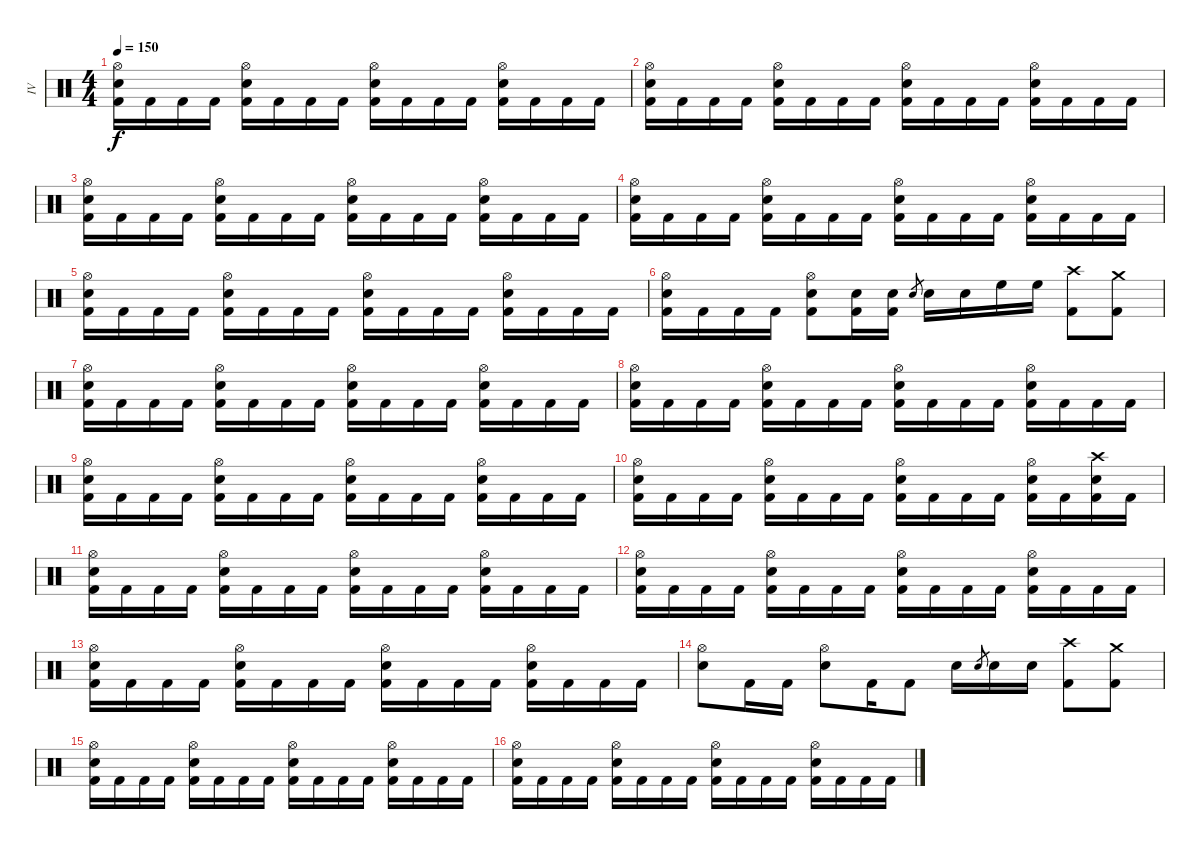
\track ("IV" "IV") {instrument percussion}
\staff {score}
\articulation defaults
\ts (4 4)
\tempo 150
\clef neutral
\ks c
("Hi-Hat (open)" "Snare (hit) 2" "Kick (hit) 2").16{dy f} "Kick (hit) 2".16 "Kick (hit) 2".16 "Kick (hit) 2".16 ("Hi-Hat (open)" "Snare (hit) 2" "Kick (hit) 2").16 "Kick (hit) 2".16 "Kick (hit) 2".16 "Kick (hit) 2".16 ("Hi-Hat (open)" "Snare (hit) 2" "Kick (hit) 2").16 "Kick (hit) 2".16 "Kick (hit) 2".16 "Kick (hit) 2".16 ("Hi-Hat (open)" "Snare (hit) 2" "Kick (hit) 2").16 "Kick (hit) 2".16 "Kick (hit) 2".16 "Kick (hit) 2".16 |
("Hi-Hat (open)" "Snare (hit) 2" "Kick (hit) 2").16 "Kick (hit) 2".16 "Kick (hit) 2".16 "Kick (hit) 2".16 ("Hi-Hat (open)" "Snare (hit) 2" "Kick (hit) 2").16 "Kick (hit) 2".16 "Kick (hit) 2".16 "Kick (hit) 2".16 ("Hi-Hat (open)" "Snare (hit) 2" "Kick (hit) 2").16 "Kick (hit) 2".16 "Kick (hit) 2".16 "Kick (hit) 2".16 ("Hi-Hat (open)" "Snare (hit) 2" "Kick (hit) 2").16 "Kick (hit) 2".16 "Kick (hit) 2".16 "Kick (hit) 2".16 |
("Hi-Hat (open)" "Snare (hit) 2" "Kick (hit) 2").16 "Kick (hit) 2".16 "Kick (hit) 2".16 "Kick (hit) 2".16 ("Hi-Hat (open)" "Snare (hit) 2" "Kick (hit) 2").16 "Kick (hit) 2".16 "Kick (hit) 2".16 "Kick (hit) 2".16 ("Hi-Hat (open)" "Snare (hit) 2" "Kick (hit) 2").16 "Kick (hit) 2".16 "Kick (hit) 2".16 "Kick (hit) 2".16 ("Hi-Hat (open)" "Snare (hit) 2" "Kick (hit) 2").16 "Kick (hit) 2".16 "Kick (hit) 2".16 "Kick (hit) 2".16 |
("Hi-Hat (open)" "Snare (hit) 2" "Kick (hit) 2").16 "Kick (hit) 2".16 "Kick (hit) 2".16 "Kick (hit) 2".16 ("Hi-Hat (open)" "Snare (hit) 2" "Kick (hit) 2").16 "Kick (hit) 2".16 "Kick (hit) 2".16 "Kick (hit) 2".16 ("Hi-Hat (open)" "Snare (hit) 2" "Kick (hit) 2").16 "Kick (hit) 2".16 "Kick (hit) 2".16 "Kick (hit) 2".16 ("Hi-Hat (open)" "Snare (hit) 2" "Kick (hit) 2").16 "Kick (hit) 2".16 "Kick (hit) 2".16 "Kick (hit) 2".16 |
("Hi-Hat (open)" "Snare (hit) 2" "Kick (hit) 2").16 "Kick (hit) 2".16 "Kick (hit) 2".16 "Kick (hit) 2".16 ("Hi-Hat (open)" "Snare (hit) 2" "Kick (hit) 2").16 "Kick (hit) 2".16 "Kick (hit) 2".16 "Kick (hit) 2".16 ("Hi-Hat (open)" "Snare (hit) 2" "Kick (hit) 2").16 "Kick (hit) 2".16 "Kick (hit) 2".16 "Kick (hit) 2".16 ("Hi-Hat (open)" "Snare (hit) 2" "Kick (hit) 2").16 "Kick (hit) 2".16 "Kick (hit) 2".16 "Kick (hit) 2".16 |
("Hi-Hat (open)" "Snare (hit) 2" "Kick (hit) 2").16 "Kick (hit) 2".16 "Kick (hit) 2".16 "Kick (hit) 2".16 ("Hi-Hat (open)" "Snare (hit) 2" "Kick (hit) 2").8 ("Snare (hit) 2" "Kick (hit) 2").16 ("Snare (hit) 2" "Kick (hit) 2").16 "Snare (hit) 2".8{gr} "Snare (hit) 2".16 "Snare (hit) 2".16 "High Floor Tom (hit)".16 "High Floor Tom (hit)".16 ("Crash high (hit)" "Kick (hit) 2").8 ("Crash medium (hit)" "Kick (hit) 2").8 |
("Hi-Hat (open)" "Snare (hit) 2" "Kick (hit) 2").16 "Kick (hit) 2".16 "Kick (hit) 2".16 "Kick (hit) 2".16 ("Hi-Hat (open)" "Snare (hit) 2" "Kick (hit) 2").16 "Kick (hit) 2".16 "Kick (hit) 2".16 "Kick (hit) 2".16 ("Hi-Hat (open)" "Snare (hit) 2" "Kick (hit) 2").16 "Kick (hit) 2".16 "Kick (hit) 2".16 "Kick (hit) 2".16 ("Hi-Hat (open)" "Snare (hit) 2" "Kick (hit) 2").16 "Kick (hit) 2".16 "Kick (hit) 2".16 "Kick (hit) 2".16 |
("Hi-Hat (open)" "Snare (hit) 2" "Kick (hit) 2").16 "Kick (hit) 2".16 "Kick (hit) 2".16 "Kick (hit) 2".16 ("Hi-Hat (open)" "Snare (hit) 2" "Kick (hit) 2").16 "Kick (hit) 2".16 "Kick (hit) 2".16 "Kick (hit) 2".16 ("Hi-Hat (open)" "Snare (hit) 2" "Kick (hit) 2").16 "Kick (hit) 2".16 "Kick (hit) 2".16 "Kick (hit) 2".16 ("Hi-Hat (open)" "Snare (hit) 2" "Kick (hit) 2").16 "Kick (hit) 2".16 "Kick (hit) 2".16 "Kick (hit) 2".16 |
("Hi-Hat (open)" "Snare (hit) 2" "Kick (hit) 2").16 "Kick (hit) 2".16 "Kick (hit) 2".16 "Kick (hit) 2".16 ("Hi-Hat (open)" "Snare (hit) 2" "Kick (hit) 2").16 "Kick (hit) 2".16 "Kick (hit) 2".16 "Kick (hit) 2".16 ("Hi-Hat (open)" "Snare (hit) 2" "Kick (hit) 2").16 "Kick (hit) 2".16 "Kick (hit) 2".16 "Kick (hit) 2".16 ("Hi-Hat (open)" "Snare (hit) 2" "Kick (hit) 2").16 "Kick (hit) 2".16 "Kick (hit) 2".16 "Kick (hit) 2".16 |
("Hi-Hat (open)" "Snare (hit) 2" "Kick (hit) 2").16 "Kick (hit) 2".16 "Kick (hit) 2".16 "Kick (hit) 2".16 ("Hi-Hat (open)" "Snare (hit) 2" "Kick (hit) 2").16 "Kick (hit) 2".16 "Kick (hit) 2".16 "Kick (hit) 2".16 ("Hi-Hat (open)" "Snare (hit) 2" "Kick (hit) 2").16 "Kick (hit) 2".16 "Kick (hit) 2".16 "Kick (hit) 2".16 ("Hi-Hat (open)" "Snare (hit) 2" "Kick (hit) 2").16 "Kick (hit) 2".16 ("Crash high (hit)" "Snare (hit) 2" "Kick (hit) 2").16 "Kick (hit) 2".16 |
("Hi-Hat (open)" "Snare (hit) 2" "Kick (hit) 2").16 "Kick (hit) 2".16 "Kick (hit) 2".16 "Kick (hit) 2".16 ("Hi-Hat (open)" "Snare (hit) 2" "Kick (hit) 2").16 "Kick (hit) 2".16 "Kick (hit) 2".16 "Kick (hit) 2".16 ("Hi-Hat (open)" "Snare (hit) 2" "Kick (hit) 2").16 "Kick (hit) 2".16 "Kick (hit) 2".16 "Kick (hit) 2".16 ("Hi-Hat (open)" "Snare (hit) 2" "Kick (hit) 2").16 "Kick (hit) 2".16 "Kick (hit) 2".16 "Kick (hit) 2".16 |
("Hi-Hat (open)" "Snare (hit) 2" "Kick (hit) 2").16 "Kick (hit) 2".16 "Kick (hit) 2".16 "Kick (hit) 2".16 ("Hi-Hat (open)" "Snare (hit) 2" "Kick (hit) 2").16 "Kick (hit) 2".16 "Kick (hit) 2".16 "Kick (hit) 2".16 ("Hi-Hat (open)" "Snare (hit) 2" "Kick (hit) 2").16 "Kick (hit) 2".16 "Kick (hit) 2".16 "Kick (hit) 2".16 ("Hi-Hat (open)" "Snare (hit) 2" "Kick (hit) 2").16 "Kick (hit) 2".16 "Kick (hit) 2".16 "Kick (hit) 2".16 |
("Hi-Hat (open)" "Snare (hit) 2" "Kick (hit) 2").16 "Kick (hit) 2".16 "Kick (hit) 2".16 "Kick (hit) 2".16 ("Hi-Hat (open)" "Snare (hit) 2" "Kick (hit) 2").16 "Kick (hit) 2".16 "Kick (hit) 2".16 "Kick (hit) 2".16 ("Hi-Hat (open)" "Snare (hit) 2" "Kick (hit) 2").16 "Kick (hit) 2".16 "Kick (hit) 2".16 "Kick (hit) 2".16 ("Hi-Hat (open)" "Snare (hit) 2" "Kick (hit) 2").16 "Kick (hit) 2".16 "Kick (hit) 2".16 "Kick (hit) 2".16 |
("Hi-Hat (open)" "Snare (hit) 2").8 "Kick (hit) 2".16 "Kick (hit) 2".16 ("Hi-Hat (open)" "Snare (hit) 2").8 "Kick (hit) 2".16 "Kick (hit) 2".8 "Snare (hit) 2".16 "Snare (hit) 2".8{gr} "Snare (hit) 2".16 "Snare (hit) 2".16 ("Crash high (hit)" "Kick (hit) 2").8 ("Crash medium (hit)" "Kick (hit) 2").8 |
("Hi-Hat (open)" "Snare (hit) 2" "Kick (hit) 2").16 "Kick (hit) 2".16 "Kick (hit) 2".16 "Kick (hit) 2".16 ("Hi-Hat (open)" "Snare (hit) 2" "Kick (hit) 2").16 "Kick (hit) 2".16 "Kick (hit) 2".16 "Kick (hit) 2".16 ("Hi-Hat (open)" "Snare (hit) 2" "Kick (hit) 2").16 "Kick (hit) 2".16 "Kick (hit) 2".16 "Kick (hit) 2".16 ("Hi-Hat (open)" "Snare (hit) 2" "Kick (hit) 2").16 "Kick (hit) 2".16 "Kick (hit) 2".16 "Kick (hit) 2".16 |
("Hi-Hat (open)" "Snare (hit) 2" "Kick (hit) 2").16 "Kick (hit) 2".16 "Kick (hit) 2".16 "Kick (hit) 2".16 ("Hi-Hat (open)" "Snare (hit) 2" "Kick (hit) 2").16 "Kick (hit) 2".16 "Kick (hit) 2".16 "Kick (hit) 2".16 ("Hi-Hat (open)" "Snare (hit) 2" "Kick (hit) 2").16 "Kick (hit) 2".16 "Kick (hit) 2".16 "Kick (hit) 2".16 ("Hi-Hat (open)" "Snare (hit) 2" "Kick (hit) 2").16 "Kick (hit) 2".16 "Kick (hit) 2".16 "Kick (hit) 2".16
